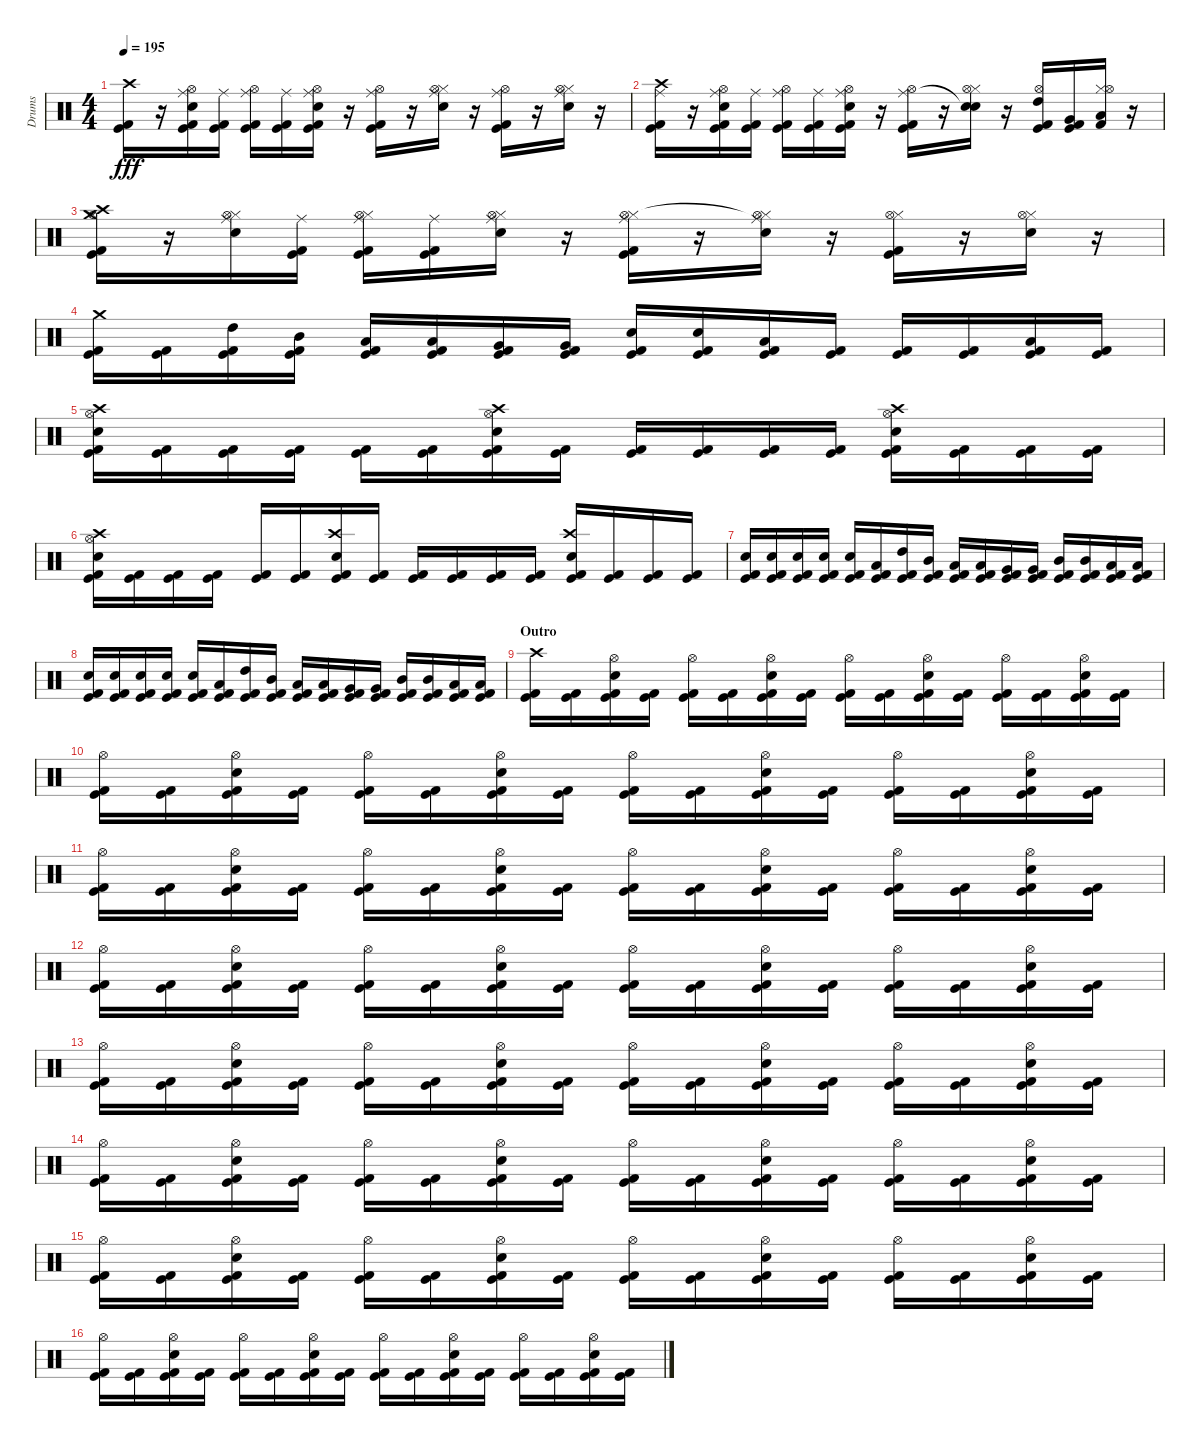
\track ("Drums" "Drums") {instrument percussion}
\staff {score}
\articulation defaults
\ts (4 4)
\tempo 195
\clef neutral
\ks c
("Kick (hit) 2" "Kick (hit)" "Crash high (hit)").16{dy fff} r.16 ("Kick (hit) 2" "Kick (hit)" "Snare (hit) 2" "Ride (middle)" "Hi-Hat (open)").16 ("Kick (hit) 2" "Kick (hit)" "Ride (middle)").16 ("Kick (hit) 2" "Kick (hit)" "Ride (middle)" "Hi-Hat (open)").16 ("Kick (hit) 2" "Kick (hit)" "Ride (middle)").16 ("Kick (hit) 2" "Kick (hit)" "Snare (hit) 2" "Ride (middle)" "Hi-Hat (open)").16 r.16 ("Kick (hit) 2" "Kick (hit)" "Ride (middle)" "Hi-Hat (open)").16 r.16 ("Snare (hit) 2" "Hi-Hat (closed)" "Ride (middle)" "Hi-Hat (open)").16 r.16 ("Kick (hit) 2" "Kick (hit)" "Ride (middle)" "Hi-Hat (open)").16 r.16 ("Snare (hit) 2" "Hi-Hat (closed)" "Ride (middle)" "Hi-Hat (open)").16 r.16 |
("Kick (hit) 2" "Kick (hit)" "Ride (middle)" "Crash high (hit)").16 r.16 ("Kick (hit) 2" "Kick (hit)" "Snare (hit) 2" "Ride (middle)" "Hi-Hat (open)").16 ("Kick (hit) 2" "Kick (hit)" "Ride (middle)").16 ("Kick (hit) 2" "Kick (hit)" "Ride (middle)" "Hi-Hat (open)").16 ("Kick (hit) 2" "Kick (hit)" "Ride (middle)").16 ("Kick (hit) 2" "Kick (hit)" "Snare (hit) 2" "Ride (middle)" "Hi-Hat (open)").16 r.16 ("Kick (hit) 2" "Kick (hit)" "Ride (middle)" "Hi-Hat (open)").16 r.16 ("Snare (hit) 2" "Hi-Hat (closed)" "Snare (hit)"{t} "Hi-Hat (open)").16 r.16 ("Kick (hit) 2" "Kick (hit)" "High Tom (hit)" "Hi-Hat (open)").16 ("Kick (hit) 2" "Kick (hit)" "Very Low Tom (hit)").16 ("Kick (hit) 2" "Hi-Hat (closed)" "Low Floor Tom (hit)" "Hi-Hat (open)").16 r.16 |
("Kick (hit) 2" "Kick (hit)" "Crash high (hit)" "Hi-Hat (open)" "Crash medium (hit)").16 r.16 ("Snare (hit) 2" "Hi-Hat (closed)" "Ride (middle)" "Hi-Hat (open)").16 ("Kick (hit) 2" "Kick (hit)" "Ride (middle)").16 ("Kick (hit) 2" "Kick (hit)" "Hi-Hat (closed)" "Ride (middle)" "Hi-Hat (open)").16 ("Kick (hit) 2" "Kick (hit)" "Ride (middle)").16 ("Snare (hit) 2" "Hi-Hat (closed)" "Ride (middle)" "Hi-Hat (open)").16 r.16 ("Kick (hit) 2" "Kick (hit)" "Hi-Hat (closed)" "Ride (middle)" "Hi-Hat (open)").16 r.16 ("Snare (hit) 2" "Hi-Hat (closed)" "Ride (middle)"{t} "Hi-Hat (open)").16 r.16 ("Kick (hit) 2" "Kick (hit)" "Hi-Hat (closed)" "Hi-Hat (open)").16 r.16 ("Snare (hit) 2" "Hi-Hat (closed)" "Hi-Hat (open)").16 r.16 |
("Kick (hit) 2" "Kick (hit)" "Crash medium (hit)").16 ("Kick (hit) 2" "Kick (hit)").16 ("Kick (hit) 2" "Kick (hit)" "High Tom (hit)").16 ("Kick (hit) 2" "Kick (hit)" "Mid Tom (hit)").16 ("Kick (hit) 2" "Kick (hit)" "Low Tom (hit)").16 ("Kick (hit) 2" "Kick (hit)" "Low Tom (hit)").16 ("Kick (hit) 2" "Kick (hit)" "Very Low Tom (hit)").16 ("Kick (hit) 2" "Kick (hit)" "Very Low Tom (hit)").16 ("Kick (hit) 2" "Kick (hit)" "Snare (hit) 2").16 ("Kick (hit) 2" "Kick (hit)" "Snare (hit) 2").16 ("Kick (hit) 2" "Kick (hit)" "Low Tom (hit)").16 ("Kick (hit) 2" "Kick (hit)").16 ("Kick (hit) 2" "Kick (hit)").16 ("Kick (hit) 2" "Kick (hit)").16 ("Kick (hit) 2" "Kick (hit)" "Low Floor Tom (hit)").16 ("Kick (hit) 2" "Kick (hit)").16 |
("Kick (hit) 2" "Kick (hit)" "Snare (hit) 2" "Crash high (hit)" "Hi-Hat (open)").16 ("Kick (hit) 2" "Kick (hit)").16 ("Kick (hit) 2" "Kick (hit)").16 ("Kick (hit) 2" "Kick (hit)").16 ("Kick (hit) 2" "Kick (hit)").16 ("Kick (hit) 2" "Kick (hit)").16 ("Kick (hit) 2" "Kick (hit)" "Snare (hit) 2" "Crash high (hit)" "Hi-Hat (open)").16 ("Kick (hit) 2" "Kick (hit)").16 ("Kick (hit) 2" "Kick (hit)").16 ("Kick (hit) 2" "Kick (hit)").16 ("Kick (hit) 2" "Kick (hit)").16 ("Kick (hit) 2" "Kick (hit)").16 ("Kick (hit) 2" "Kick (hit)" "Snare (hit) 2" "Crash high (hit)" "Hi-Hat (open)").16 ("Kick (hit) 2" "Kick (hit)").16 ("Kick (hit) 2" "Kick (hit)").16 ("Kick (hit) 2" "Kick (hit)").16 |
("Kick (hit) 2" "Kick (hit)" "Snare (hit) 2" "Crash high (hit)" "Hi-Hat (open)").16 ("Kick (hit) 2" "Kick (hit)").16 ("Kick (hit) 2" "Kick (hit)").16 ("Kick (hit) 2" "Kick (hit)").16 ("Kick (hit) 2" "Kick (hit)").16 ("Kick (hit) 2" "Kick (hit)").16 ("Kick (hit) 2" "Kick (hit)" "Snare (hit) 2" "Crash high (hit)").16 ("Kick (hit) 2" "Kick (hit)").16 ("Kick (hit) 2" "Kick (hit)").16 ("Kick (hit) 2" "Kick (hit)").16 ("Kick (hit) 2" "Kick (hit)").16 ("Kick (hit) 2" "Kick (hit)").16 ("Kick (hit) 2" "Kick (hit)" "Snare (hit) 2" "Crash high (hit)").16 ("Kick (hit) 2" "Kick (hit)").16 ("Kick (hit) 2" "Kick (hit)").16 ("Kick (hit) 2" "Kick (hit)").16 |
("Kick (hit) 2" "Kick (hit)" "Snare (hit) 2").16 ("Kick (hit) 2" "Kick (hit)" "Snare (hit) 2").16 ("Kick (hit) 2" "Kick (hit)" "Snare (hit) 2").16 ("Kick (hit) 2" "Kick (hit)" "Snare (hit) 2").16 ("Kick (hit) 2" "Kick (hit)" "Snare (hit) 2").16 ("Kick (hit) 2" "Kick (hit)" "Low Tom (hit)").16 ("Kick (hit) 2" "Kick (hit)" "High Tom (hit)").16 ("Kick (hit) 2" "Kick (hit)" "Mid Tom (hit)").16 ("Kick (hit) 2" "Kick (hit)" "Low Tom (hit)").16 ("Kick (hit) 2" "Kick (hit)" "Low Tom (hit)").16 ("Kick (hit) 2" "Kick (hit)" "Very Low Tom (hit)").16 ("Kick (hit) 2" "Kick (hit)" "Very Low Tom (hit)").16 ("Kick (hit) 2" "Kick (hit)" "Mid Tom (hit)").16 ("Kick (hit) 2" "Kick (hit)" "Mid Tom (hit)").16 ("Kick (hit) 2" "Kick (hit)" "Low Tom (hit)").16 ("Kick (hit) 2" "Kick (hit)" "Low Floor Tom (hit)").16 |
("Kick (hit) 2" "Kick (hit)" "Snare (hit) 2").16 ("Kick (hit) 2" "Kick (hit)" "Snare (hit) 2").16 ("Kick (hit) 2" "Kick (hit)" "Snare (hit) 2").16 ("Kick (hit) 2" "Kick (hit)" "Snare (hit) 2").16 ("Kick (hit) 2" "Kick (hit)" "Snare (hit) 2").16 ("Kick (hit) 2" "Kick (hit)" "Low Tom (hit)").16 ("Kick (hit) 2" "Kick (hit)" "High Tom (hit)").16 ("Kick (hit) 2" "Kick (hit)" "Mid Tom (hit)").16 ("Kick (hit) 2" "Kick (hit)" "Low Tom (hit)").16 ("Kick (hit) 2" "Kick (hit)" "Low Tom (hit)").16 ("Kick (hit) 2" "Kick (hit)" "Very Low Tom (hit)").16 ("Kick (hit) 2" "Kick (hit)" "Very Low Tom (hit)").16 ("Kick (hit) 2" "Kick (hit)" "Mid Tom (hit)").16 ("Kick (hit) 2" "Kick (hit)" "Mid Tom (hit)").16 ("Kick (hit) 2" "Kick (hit)" "Low Tom (hit)").16 ("Kick (hit) 2" "Kick (hit)" "Low Floor Tom (hit)").16 |
\section ("" "Outro")
("Kick (hit) 2" "Kick (hit)" "Crash high (hit)").16 ("Kick (hit) 2" "Kick (hit)").16 ("Kick (hit) 2" "Kick (hit)" "Snare (hit) 2" "Hi-Hat (open)").16 ("Kick (hit) 2" "Kick (hit)").16 ("Kick (hit) 2" "Kick (hit)" "Hi-Hat (open)").16 ("Kick (hit) 2" "Kick (hit)").16 ("Kick (hit) 2" "Kick (hit)" "Snare (hit) 2" "Hi-Hat (open)").16 ("Kick (hit) 2" "Kick (hit)").16 ("Kick (hit) 2" "Kick (hit)" "Hi-Hat (open)").16 ("Kick (hit) 2" "Kick (hit)").16 ("Kick (hit) 2" "Kick (hit)" "Snare (hit) 2" "Hi-Hat (open)").16 ("Kick (hit) 2" "Kick (hit)").16 ("Kick (hit) 2" "Kick (hit)" "Hi-Hat (open)").16 ("Kick (hit) 2" "Kick (hit)").16 ("Kick (hit) 2" "Kick (hit)" "Snare (hit) 2" "Hi-Hat (open)").16 ("Kick (hit) 2" "Kick (hit)").16 |
("Kick (hit) 2" "Kick (hit)" "Hi-Hat (open)").16 ("Kick (hit) 2" "Kick (hit)").16 ("Kick (hit) 2" "Kick (hit)" "Snare (hit) 2" "Hi-Hat (open)").16 ("Kick (hit) 2" "Kick (hit)").16 ("Kick (hit) 2" "Kick (hit)" "Hi-Hat (open)").16 ("Kick (hit) 2" "Kick (hit)").16 ("Kick (hit) 2" "Kick (hit)" "Snare (hit) 2" "Hi-Hat (open)").16 ("Kick (hit) 2" "Kick (hit)").16 ("Kick (hit) 2" "Kick (hit)" "Hi-Hat (open)").16 ("Kick (hit) 2" "Kick (hit)").16 ("Kick (hit) 2" "Kick (hit)" "Snare (hit) 2" "Hi-Hat (open)").16 ("Kick (hit) 2" "Kick (hit)").16 ("Kick (hit) 2" "Kick (hit)" "Hi-Hat (open)").16 ("Kick (hit) 2" "Kick (hit)").16 ("Kick (hit) 2" "Kick (hit)" "Snare (hit) 2" "Hi-Hat (open)").16 ("Kick (hit) 2" "Kick (hit)").16 |
("Kick (hit) 2" "Kick (hit)" "Hi-Hat (open)").16 ("Kick (hit) 2" "Kick (hit)").16 ("Kick (hit) 2" "Kick (hit)" "Snare (hit) 2" "Hi-Hat (open)").16 ("Kick (hit) 2" "Kick (hit)").16 ("Kick (hit) 2" "Kick (hit)" "Hi-Hat (open)").16 ("Kick (hit) 2" "Kick (hit)").16 ("Kick (hit) 2" "Kick (hit)" "Snare (hit) 2" "Hi-Hat (open)").16 ("Kick (hit) 2" "Kick (hit)").16 ("Kick (hit) 2" "Kick (hit)" "Hi-Hat (open)").16 ("Kick (hit) 2" "Kick (hit)").16 ("Kick (hit) 2" "Kick (hit)" "Snare (hit) 2" "Hi-Hat (open)").16 ("Kick (hit) 2" "Kick (hit)").16 ("Kick (hit) 2" "Kick (hit)" "Hi-Hat (open)").16 ("Kick (hit) 2" "Kick (hit)").16 ("Kick (hit) 2" "Kick (hit)" "Snare (hit) 2" "Hi-Hat (open)").16 ("Kick (hit) 2" "Kick (hit)").16 |
("Kick (hit) 2" "Kick (hit)" "Hi-Hat (open)").16 ("Kick (hit) 2" "Kick (hit)").16 ("Kick (hit) 2" "Kick (hit)" "Snare (hit) 2" "Hi-Hat (open)").16 ("Kick (hit) 2" "Kick (hit)").16 ("Kick (hit) 2" "Kick (hit)" "Hi-Hat (open)").16 ("Kick (hit) 2" "Kick (hit)").16 ("Kick (hit) 2" "Kick (hit)" "Snare (hit) 2" "Hi-Hat (open)").16 ("Kick (hit) 2" "Kick (hit)").16 ("Kick (hit) 2" "Kick (hit)" "Hi-Hat (open)").16 ("Kick (hit) 2" "Kick (hit)").16 ("Kick (hit) 2" "Kick (hit)" "Snare (hit) 2" "Hi-Hat (open)").16 ("Kick (hit) 2" "Kick (hit)").16 ("Kick (hit) 2" "Kick (hit)" "Hi-Hat (open)").16 ("Kick (hit) 2" "Kick (hit)").16 ("Kick (hit) 2" "Kick (hit)" "Snare (hit) 2" "Hi-Hat (open)").16 ("Kick (hit) 2" "Kick (hit)").16 |
("Kick (hit) 2" "Kick (hit)" "Hi-Hat (open)").16 ("Kick (hit) 2" "Kick (hit)").16 ("Kick (hit) 2" "Kick (hit)" "Snare (hit) 2" "Hi-Hat (open)").16 ("Kick (hit) 2" "Kick (hit)").16 ("Kick (hit) 2" "Kick (hit)" "Hi-Hat (open)").16 ("Kick (hit) 2" "Kick (hit)").16 ("Kick (hit) 2" "Kick (hit)" "Snare (hit) 2" "Hi-Hat (open)").16 ("Kick (hit) 2" "Kick (hit)").16 ("Kick (hit) 2" "Kick (hit)" "Hi-Hat (open)").16 ("Kick (hit) 2" "Kick (hit)").16 ("Kick (hit) 2" "Kick (hit)" "Snare (hit) 2" "Hi-Hat (open)").16 ("Kick (hit) 2" "Kick (hit)").16 ("Kick (hit) 2" "Kick (hit)" "Hi-Hat (open)").16 ("Kick (hit) 2" "Kick (hit)").16 ("Kick (hit) 2" "Kick (hit)" "Snare (hit) 2" "Hi-Hat (open)").16 ("Kick (hit) 2" "Kick (hit)").16 |
("Kick (hit) 2" "Kick (hit)" "Hi-Hat (open)").16 ("Kick (hit) 2" "Kick (hit)").16 ("Kick (hit) 2" "Kick (hit)" "Snare (hit) 2" "Hi-Hat (open)").16 ("Kick (hit) 2" "Kick (hit)").16 ("Kick (hit) 2" "Kick (hit)" "Hi-Hat (open)").16 ("Kick (hit) 2" "Kick (hit)").16 ("Kick (hit) 2" "Kick (hit)" "Snare (hit) 2" "Hi-Hat (open)").16 ("Kick (hit) 2" "Kick (hit)").16 ("Kick (hit) 2" "Kick (hit)" "Hi-Hat (open)").16 ("Kick (hit) 2" "Kick (hit)").16 ("Kick (hit) 2" "Kick (hit)" "Snare (hit) 2" "Hi-Hat (open)").16 ("Kick (hit) 2" "Kick (hit)").16 ("Kick (hit) 2" "Kick (hit)" "Hi-Hat (open)").16 ("Kick (hit) 2" "Kick (hit)").16 ("Kick (hit) 2" "Kick (hit)" "Snare (hit) 2" "Hi-Hat (open)").16 ("Kick (hit) 2" "Kick (hit)").16 |
("Kick (hit) 2" "Kick (hit)" "Hi-Hat (open)").16 ("Kick (hit) 2" "Kick (hit)").16 ("Kick (hit) 2" "Kick (hit)" "Snare (hit) 2" "Hi-Hat (open)").16 ("Kick (hit) 2" "Kick (hit)").16 ("Kick (hit) 2" "Kick (hit)" "Hi-Hat (open)").16 ("Kick (hit) 2" "Kick (hit)").16 ("Kick (hit) 2" "Kick (hit)" "Snare (hit) 2" "Hi-Hat (open)").16 ("Kick (hit) 2" "Kick (hit)").16 ("Kick (hit) 2" "Kick (hit)" "Hi-Hat (open)").16 ("Kick (hit) 2" "Kick (hit)").16 ("Kick (hit) 2" "Kick (hit)" "Snare (hit) 2" "Hi-Hat (open)").16 ("Kick (hit) 2" "Kick (hit)").16 ("Kick (hit) 2" "Kick (hit)" "Hi-Hat (open)").16 ("Kick (hit) 2" "Kick (hit)").16 ("Kick (hit) 2" "Kick (hit)" "Snare (hit) 2" "Hi-Hat (open)").16 ("Kick (hit) 2" "Kick (hit)").16 |
("Kick (hit) 2" "Kick (hit)" "Hi-Hat (open)").16 ("Kick (hit) 2" "Kick (hit)").16 ("Kick (hit) 2" "Kick (hit)" "Snare (hit) 2" "Hi-Hat (open)").16 ("Kick (hit) 2" "Kick (hit)").16 ("Kick (hit) 2" "Kick (hit)" "Hi-Hat (open)").16 ("Kick (hit) 2" "Kick (hit)").16 ("Kick (hit) 2" "Kick (hit)" "Snare (hit) 2" "Hi-Hat (open)").16 ("Kick (hit) 2" "Kick (hit)").16 ("Kick (hit) 2" "Kick (hit)" "Hi-Hat (open)").16 ("Kick (hit) 2" "Kick (hit)").16 ("Kick (hit) 2" "Kick (hit)" "Snare (hit) 2" "Hi-Hat (open)").16 ("Kick (hit) 2" "Kick (hit)").16 ("Kick (hit) 2" "Kick (hit)" "Hi-Hat (open)").16 ("Kick (hit) 2" "Kick (hit)").16 ("Kick (hit) 2" "Kick (hit)" "Snare (hit) 2" "Hi-Hat (open)").16 ("Kick (hit) 2" "Kick (hit)").16
